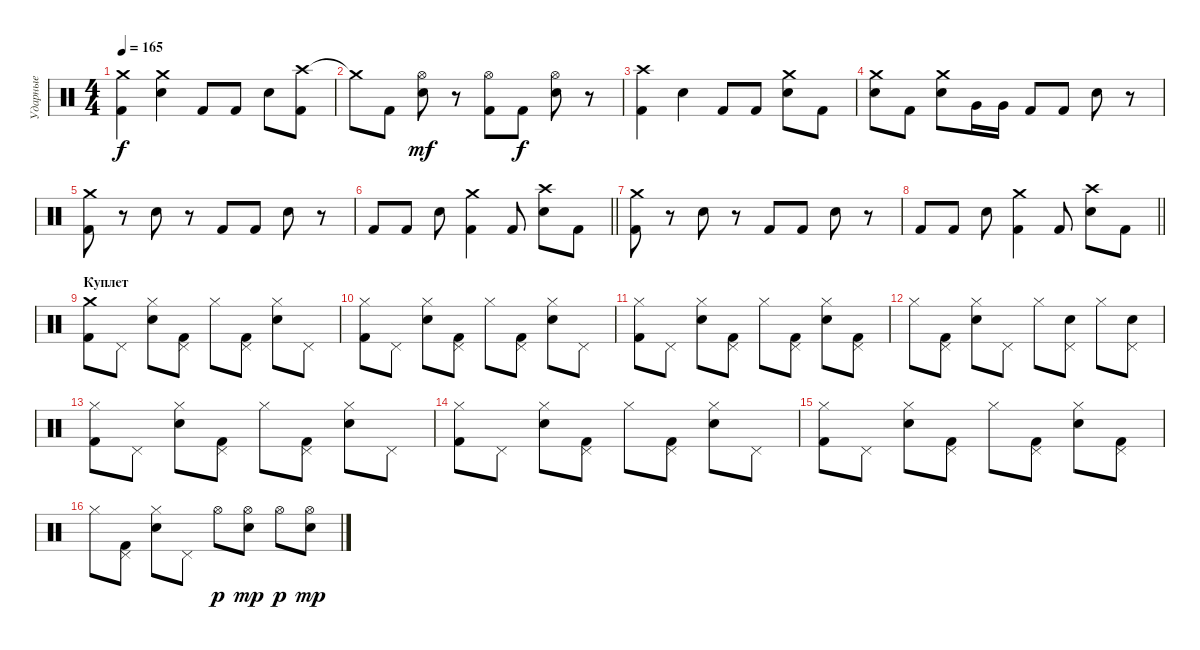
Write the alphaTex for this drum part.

\track ("Ударные" "Ударные") {instrument percussion}
\staff {score}
\articulation defaults
\ts (4 4)
\tempo 165
\clef neutral
\ks c
("Crash medium (hit)" "Kick (hit) 2").4{dy f} ("Crash medium (hit)" "Snare (hit) 2").4 "Kick (hit) 2".8 "Kick (hit) 2".8 "Snare (hit) 2".8 ("Crash high (hit)" "Kick (hit) 2").8 |
"Crash medium (hit)"{t}.8 "Kick (hit) 2".8 ("Hi-Hat (open)" "Snare (hit) 2").8{dy mf} r.8 ("Hi-Hat (open)" "Kick (hit) 2").8 "Kick (hit) 2".8{dy f} ("Hi-Hat (open)" "Snare (hit) 2").8 r.8 |
("Crash high (hit)" "Kick (hit) 2").4 "Snare (hit) 2".4 "Kick (hit) 2".8 "Kick (hit) 2".8 ("Crash medium (hit)" "Snare (hit) 2").8 "Kick (hit) 2".8 |
("Crash medium (hit)" "Snare (hit) 2").8 "Kick (hit) 2".8 ("Crash medium (hit)" "Snare (hit) 2").8 "Very Low Tom (hit)".16 "Very Low Tom (hit)".16 "Kick (hit) 2".8 "Kick (hit) 2".8 "Snare (hit) 2".8 r.8 |
("Crash medium (hit)" "Kick (hit) 2").8 r.8 "Snare (hit) 2".8 r.8 "Kick (hit) 2".8 "Kick (hit) 2".8 "Snare (hit) 2".8 r.8 |
\barLineRight lightlight "Kick (hit) 2".8 "Kick (hit) 2".8 "Snare (hit) 2".8
("Crash medium (hit)" "Kick (hit) 2").4 "Kick (hit) 2".8 ("Crash high (hit)" "Snare (hit) 2").8 "Kick (hit) 2".8 |
("Crash medium (hit)" "Kick (hit) 2").8 r.8 "Snare (hit) 2".8 r.8 "Kick (hit) 2".8 "Kick (hit) 2".8 "Snare (hit) 2".8 r.8 |
\barLineRight lightlight "Kick (hit) 2".8 "Kick (hit) 2".8 "Snare (hit) 2".8
("Crash medium (hit)" "Kick (hit) 2").4 "Kick (hit) 2".8 ("Crash high (hit)" "Snare (hit) 2").8 "Kick (hit) 2".8 |
\section ("" "Куплет")
("Crash medium (hit)" "Kick (hit) 2").8 "Pedal Hi-Hat (hit)".8 ("Hi-Hat (closed)" "Snare (hit) 2").8 ("Pedal Hi-Hat (hit)" "Kick (hit) 2").8 "Hi-Hat (closed)".8 ("Pedal Hi-Hat (hit)" "Kick (hit) 2").8 ("Hi-Hat (closed)" "Snare (hit) 2").8 "Pedal Hi-Hat (hit)".8 |
("Hi-Hat (closed)" "Kick (hit) 2").8 "Pedal Hi-Hat (hit)".8 ("Hi-Hat (closed)" "Snare (hit) 2").8 ("Pedal Hi-Hat (hit)" "Kick (hit) 2").8 "Hi-Hat (closed)".8 ("Pedal Hi-Hat (hit)" "Kick (hit) 2").8 ("Hi-Hat (closed)" "Snare (hit) 2").8 "Pedal Hi-Hat (hit)".8 |
("Hi-Hat (closed)" "Kick (hit) 2").8 "Pedal Hi-Hat (hit)".8 ("Hi-Hat (closed)" "Snare (hit) 2").8 ("Pedal Hi-Hat (hit)" "Kick (hit) 2").8 "Hi-Hat (closed)".8 ("Pedal Hi-Hat (hit)" "Kick (hit) 2").8 ("Hi-Hat (closed)" "Snare (hit) 2").8 ("Pedal Hi-Hat (hit)" "Kick (hit) 2").8 |
"Hi-Hat (closed)".8 ("Pedal Hi-Hat (hit)" "Kick (hit) 2").8 ("Hi-Hat (closed)" "Snare (hit) 2").8 "Pedal Hi-Hat (hit)".8 "Hi-Hat (closed)".8 ("Pedal Hi-Hat (hit)" "Snare (hit) 2").8 "Hi-Hat (closed)".8 ("Pedal Hi-Hat (hit)" "Snare (hit) 2").8 |
("Hi-Hat (closed)" "Kick (hit) 2").8 "Pedal Hi-Hat (hit)".8 ("Hi-Hat (closed)" "Snare (hit) 2").8 ("Pedal Hi-Hat (hit)" "Kick (hit) 2").8 "Hi-Hat (closed)".8 ("Pedal Hi-Hat (hit)" "Kick (hit) 2").8 ("Hi-Hat (closed)" "Snare (hit) 2").8 "Pedal Hi-Hat (hit)".8 |
("Hi-Hat (closed)" "Kick (hit) 2").8 "Pedal Hi-Hat (hit)".8 ("Hi-Hat (closed)" "Snare (hit) 2").8 ("Pedal Hi-Hat (hit)" "Kick (hit) 2").8 "Hi-Hat (closed)".8 ("Pedal Hi-Hat (hit)" "Kick (hit) 2").8 ("Hi-Hat (closed)" "Snare (hit) 2").8 "Pedal Hi-Hat (hit)".8 |
("Hi-Hat (closed)" "Kick (hit) 2").8 "Pedal Hi-Hat (hit)".8 ("Hi-Hat (closed)" "Snare (hit) 2").8 ("Pedal Hi-Hat (hit)" "Kick (hit) 2").8 "Hi-Hat (closed)".8 ("Pedal Hi-Hat (hit)" "Kick (hit) 2").8 ("Hi-Hat (closed)" "Snare (hit) 2").8 ("Pedal Hi-Hat (hit)" "Kick (hit) 2").8 |
"Hi-Hat (closed)".8 ("Pedal Hi-Hat (hit)" "Kick (hit) 2").8 ("Hi-Hat (closed)" "Snare (hit) 2").8 "Pedal Hi-Hat (hit)".8 "Hi-Hat (open)".8{dy p} ("Hi-Hat (open)" "Snare (hit) 2").8{dy mp} "Hi-Hat (open)".8{dy p} ("Hi-Hat (open)" "Snare (hit) 2").8{dy mp}
